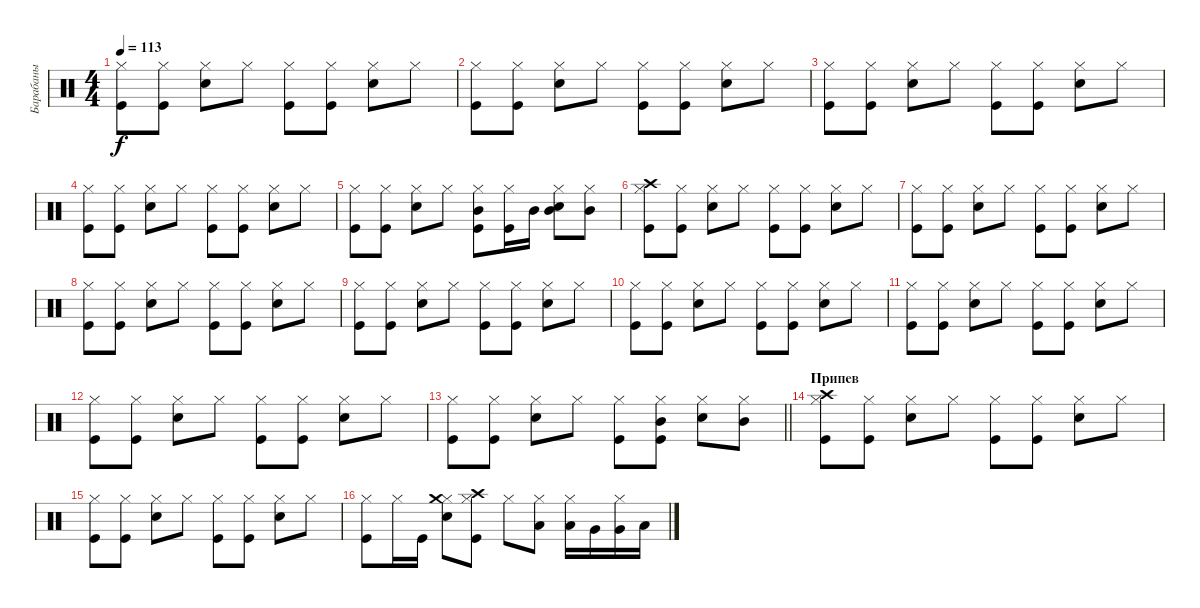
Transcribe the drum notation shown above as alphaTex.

\track ("Барабаны" "Барабаны") {instrument percussion}
\staff {score}
\articulation defaults
\ts (4 4)
\tempo 113
\clef neutral
\ks c
("Kick (hit)" "Hi-Hat (closed)").8{dy f} ("Kick (hit)" "Hi-Hat (closed)").8 ("Snare (hit) 2" "Hi-Hat (closed)").8 "Hi-Hat (closed)".8 ("Kick (hit)" "Hi-Hat (closed)").8 ("Kick (hit)" "Hi-Hat (closed)").8 ("Snare (hit) 2" "Hi-Hat (closed)").8 "Hi-Hat (closed)".8 |
("Kick (hit)" "Hi-Hat (closed)").8 ("Kick (hit)" "Hi-Hat (closed)").8 ("Snare (hit) 2" "Hi-Hat (closed)").8 "Hi-Hat (closed)".8 ("Kick (hit)" "Hi-Hat (closed)").8 ("Kick (hit)" "Hi-Hat (closed)").8 ("Snare (hit) 2" "Hi-Hat (closed)").8 "Hi-Hat (closed)".8 |
("Kick (hit)" "Hi-Hat (closed)").8 ("Kick (hit)" "Hi-Hat (closed)").8 ("Snare (hit) 2" "Hi-Hat (closed)").8 "Hi-Hat (closed)".8 ("Kick (hit)" "Hi-Hat (closed)").8 ("Kick (hit)" "Hi-Hat (closed)").8 ("Snare (hit) 2" "Hi-Hat (closed)").8 "Hi-Hat (closed)".8 |
("Kick (hit)" "Hi-Hat (closed)").8 ("Kick (hit)" "Hi-Hat (closed)").8 ("Snare (hit) 2" "Hi-Hat (closed)").8 "Hi-Hat (closed)".8 ("Kick (hit)" "Hi-Hat (closed)").8 ("Kick (hit)" "Hi-Hat (closed)").8 ("Snare (hit) 2" "Hi-Hat (closed)").8 "Hi-Hat (closed)".8 |
("Kick (hit)" "Hi-Hat (closed)").8 ("Kick (hit)" "Hi-Hat (closed)").8 ("Snare (hit) 2" "Hi-Hat (closed)").8 "Hi-Hat (closed)".8 ("Kick (hit)" "Hi-Hat (closed)" "Mid Tom (hit)").8 ("Kick (hit)" "Hi-Hat (closed)").16 "Mid Tom (hit)".16 ("Snare (hit) 2" "Hi-Hat (closed)" "Mid Tom (hit)").8 ("Hi-Hat (closed)" "Mid Tom (hit)").8 |
("Kick (hit)" "Hi-Hat (closed)" "Crash high (hit)").8 ("Kick (hit)" "Hi-Hat (closed)").8 ("Snare (hit) 2" "Hi-Hat (closed)").8 "Hi-Hat (closed)".8 ("Kick (hit)" "Hi-Hat (closed)").8 ("Kick (hit)" "Hi-Hat (closed)").8 ("Snare (hit) 2" "Hi-Hat (closed)").8 "Hi-Hat (closed)".8 |
("Kick (hit)" "Hi-Hat (closed)").8 ("Kick (hit)" "Hi-Hat (closed)").8 ("Snare (hit) 2" "Hi-Hat (closed)").8 "Hi-Hat (closed)".8 ("Kick (hit)" "Hi-Hat (closed)").8 ("Kick (hit)" "Hi-Hat (closed)").8 ("Snare (hit) 2" "Hi-Hat (closed)").8 "Hi-Hat (closed)".8 |
("Kick (hit)" "Hi-Hat (closed)").8 ("Kick (hit)" "Hi-Hat (closed)").8 ("Snare (hit) 2" "Hi-Hat (closed)").8 "Hi-Hat (closed)".8 ("Kick (hit)" "Hi-Hat (closed)").8 ("Kick (hit)" "Hi-Hat (closed)").8 ("Snare (hit) 2" "Hi-Hat (closed)").8 "Hi-Hat (closed)".8 |
("Kick (hit)" "Hi-Hat (closed)").8 ("Kick (hit)" "Hi-Hat (closed)").8 ("Snare (hit) 2" "Hi-Hat (closed)").8 "Hi-Hat (closed)".8 ("Kick (hit)" "Hi-Hat (closed)").8 ("Kick (hit)" "Hi-Hat (closed)").8 ("Snare (hit) 2" "Hi-Hat (closed)").8 "Hi-Hat (closed)".8 |
("Kick (hit)" "Hi-Hat (closed)").8 ("Kick (hit)" "Hi-Hat (closed)").8 ("Snare (hit) 2" "Hi-Hat (closed)").8 "Hi-Hat (closed)".8 ("Kick (hit)" "Hi-Hat (closed)").8 ("Kick (hit)" "Hi-Hat (closed)").8 ("Snare (hit) 2" "Hi-Hat (closed)").8 "Hi-Hat (closed)".8 |
("Kick (hit)" "Hi-Hat (closed)").8 ("Kick (hit)" "Hi-Hat (closed)").8 ("Snare (hit) 2" "Hi-Hat (closed)").8 "Hi-Hat (closed)".8 ("Kick (hit)" "Hi-Hat (closed)").8 ("Kick (hit)" "Hi-Hat (closed)").8 ("Snare (hit) 2" "Hi-Hat (closed)").8 "Hi-Hat (closed)".8 |
("Kick (hit)" "Hi-Hat (closed)").8 ("Kick (hit)" "Hi-Hat (closed)").8 ("Snare (hit) 2" "Hi-Hat (closed)").8 "Hi-Hat (closed)".8 ("Kick (hit)" "Hi-Hat (closed)").8 ("Kick (hit)" "Hi-Hat (closed)").8 ("Snare (hit) 2" "Hi-Hat (closed)").8 "Hi-Hat (closed)".8 |
\barLineRight lightlight
("Kick (hit)" "Hi-Hat (closed)").8 ("Kick (hit)" "Hi-Hat (closed)").8 ("Snare (hit) 2" "Hi-Hat (closed)").8 "Hi-Hat (closed)".8 ("Kick (hit)" "Hi-Hat (closed)").8 ("Kick (hit)" "Hi-Hat (closed)" "Mid Tom (hit)").8 ("Snare (hit) 2" "Hi-Hat (closed)").8 ("Hi-Hat (closed)" "Mid Tom (hit)").8 |
\section ("" "Припев")
("Kick (hit)" "Hi-Hat (closed)" "Crash high (hit)").8 ("Kick (hit)" "Hi-Hat (closed)").8 ("Snare (hit) 2" "Hi-Hat (closed)").8 "Hi-Hat (closed)".8 ("Kick (hit)" "Hi-Hat (closed)").8 ("Kick (hit)" "Hi-Hat (closed)").8 ("Snare (hit) 2" "Hi-Hat (closed)").8 "Hi-Hat (closed)".8 |
("Kick (hit)" "Hi-Hat (closed)").8 ("Kick (hit)" "Hi-Hat (closed)").8 ("Snare (hit) 2" "Hi-Hat (closed)").8 "Hi-Hat (closed)".8 ("Kick (hit)" "Hi-Hat (closed)").8 ("Kick (hit)" "Hi-Hat (closed)").8 ("Snare (hit) 2" "Hi-Hat (closed)").8 "Hi-Hat (closed)".8 |
("Kick (hit)" "Hi-Hat (closed)").8 "Hi-Hat (closed)".16 "Kick (hit)".16 ("Snare (hit) 2" "Hi-Hat (closed)" "Crash medium (hit)").8 ("Kick (hit)" "Hi-Hat (closed)" "Crash high (hit)").8 "Hi-Hat (closed)".8 ("Hi-Hat (closed)" "Low Floor Tom (hit)").8 ("Hi-Hat (closed)" "Low Floor Tom (hit)").16 "Very Low Tom (hit)".16 ("Hi-Hat (closed)" "Very Low Tom (hit)").16 "Low Tom (hit)".16
